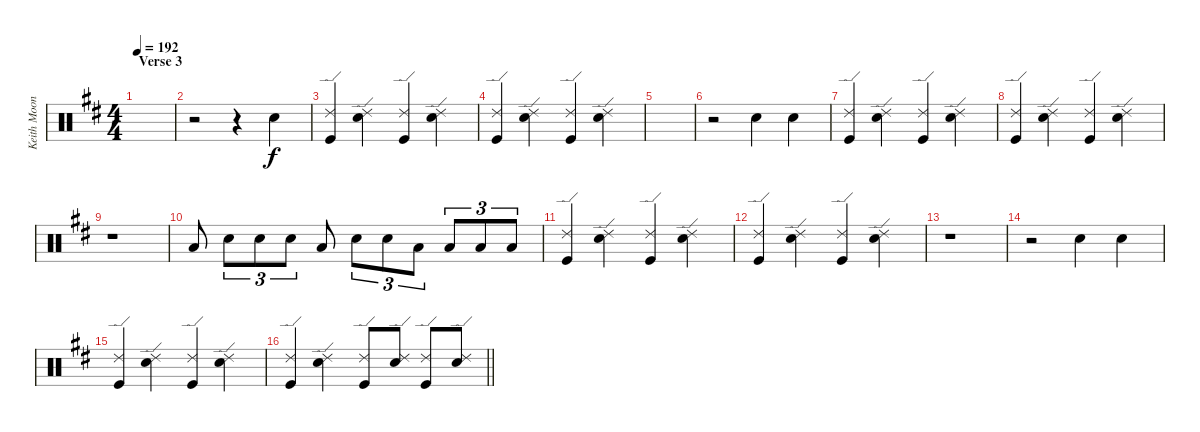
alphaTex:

\track ("Keith Moon - Drums" "Keith Moon") {instrument percussion}
\staff {score}
\articulation defaults
\ts (4 4)
\section ("" "Verse 3")
\tempo 192
\clef neutral
\ks d
|
r.2 r.4 "Electric Snare (hit)".4 |
("Ride (edge) 2" "Kick (hit)").4 ("Ride (edge) 2" "Electric Snare (hit)").4 ("Ride (edge) 2" "Kick (hit)").4 ("Ride (edge) 2" "Electric Snare (hit)").4 |
("Ride (edge) 2" "Kick (hit)").4 ("Ride (edge) 2" "Electric Snare (hit)").4 ("Ride (edge) 2" "Kick (hit)").4 ("Ride (edge) 2" "Electric Snare (hit)").4 |
|
r.2 "Electric Snare (hit)".4 "Electric Snare (hit)".4 |
("Ride (edge) 2" "Kick (hit)").4 ("Ride (edge) 2" "Electric Snare (hit)").4 ("Ride (edge) 2" "Kick (hit)").4 ("Ride (edge) 2" "Electric Snare (hit)").4 |
("Ride (edge) 2" "Kick (hit)").4 ("Ride (edge) 2" "Electric Snare (hit)").4 ("Ride (edge) 2" "Kick (hit)").4 ("Ride (edge) 2" "Electric Snare (hit)").4 |
r.1 |
"Low Floor Tom (hit)".8 "Electric Snare (hit)".8{tu (3 2)} "Electric Snare (hit)".8{tu (3 2)} "Electric Snare (hit)".8{tu (3 2)} "Low Floor Tom (hit)".8 "Electric Snare (hit)".8{tu (3 2)} "Electric Snare (hit)".8{tu (3 2)} "Low Floor Tom (hit)".8{tu (3 2)} "Low Floor Tom (hit)".8{tu (3 2)} "Low Floor Tom (hit)".8{tu (3 2)} "Low Floor Tom (hit)".8{tu (3 2)} |
("Ride (edge) 2" "Kick (hit)").4 ("Ride (edge) 2" "Electric Snare (hit)").4 ("Ride (edge) 2" "Kick (hit)").4 ("Ride (edge) 2" "Electric Snare (hit)").4 |
("Ride (edge) 2" "Kick (hit)").4 ("Ride (edge) 2" "Electric Snare (hit)").4 ("Ride (edge) 2" "Kick (hit)").4 ("Ride (edge) 2" "Electric Snare (hit)").4 |
r.1 |
r.2 "Electric Snare (hit)".4 "Electric Snare (hit)".4 |
("Ride (edge) 2" "Kick (hit)").4 ("Ride (edge) 2" "Electric Snare (hit)").4 ("Ride (edge) 2" "Kick (hit)").4 ("Ride (edge) 2" "Electric Snare (hit)").4 |
\barLineRight lightlight
("Ride (edge) 2" "Kick (hit)").4 ("Ride (edge) 2" "Electric Snare (hit)").4 ("Ride (edge) 2" "Kick (hit)").8 ("Ride (edge) 2" "Electric Snare (hit)").8 ("Ride (edge) 2" "Kick (hit)").8 ("Ride (edge) 2" "Electric Snare (hit)").8
